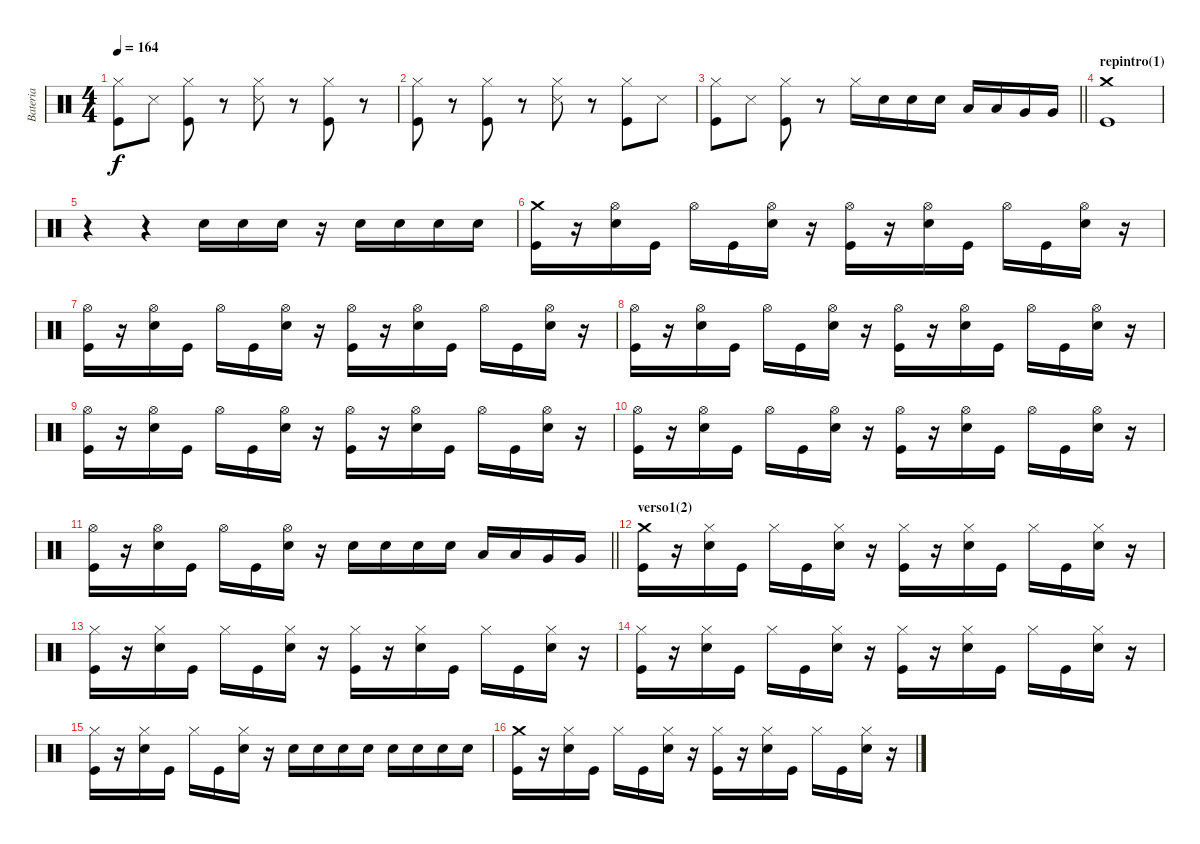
\track ("Bateria" "Bateria") {instrument percussion}
\staff {score}
\articulation defaults
\ts (4 4)
\tempo 164
\clef neutral
\ks c
("Hi-Hat (closed)" "Kick (hit)").8{dy f} "Snare (side stick) 3".8 ("Hi-Hat (closed)" "Kick (hit)").8 r.8 ("Hi-Hat (closed)" "Snare (side stick) 3").8 r.8 ("Hi-Hat (closed)" "Kick (hit)").8 r.8 |
("Hi-Hat (closed)" "Kick (hit)").8 r.8 ("Hi-Hat (closed)" "Kick (hit)").8 r.8 ("Hi-Hat (closed)" "Snare (side stick) 3").8 r.8 ("Hi-Hat (closed)" "Kick (hit)").8 "Snare (side stick) 3".8 |
\barLineRight lightlight
("Hi-Hat (closed)" "Kick (hit)").8 "Snare (side stick) 3".8 ("Hi-Hat (closed)" "Kick (hit)").8 r.8 "Hi-Hat (closed)".16 "Snare (hit) 2".16 "Snare (hit) 2".16 "Snare (hit) 2".16 "Low Tom (hit)".16 "Low Tom (hit)".16 "Very Low Tom (hit)".16 "Very Low Tom (hit)".16 |
\section ("" "repintro(1)")
("Crash medium (hit)" "Kick (hit)").1 |
r.4 r.4 "Snare (hit) 2".16 "Snare (hit) 2".16 "Snare (hit) 2".16 r.16 "Snare (hit) 2".16 "Snare (hit) 2".16 "Snare (hit) 2".16 "Snare (hit) 2".16 |
("Crash medium (hit)" "Kick (hit)").16 r.16 ("Hi-Hat (open)" "Snare (hit) 2").16 "Kick (hit)".16 "Hi-Hat (open)".16 "Kick (hit)".16 ("Hi-Hat (open)" "Snare (hit) 2").16 r.16 ("Hi-Hat (open)" "Kick (hit)").16 r.16 ("Hi-Hat (open)" "Snare (hit) 2").16 "Kick (hit)".16 "Hi-Hat (open)".16 "Kick (hit)".16 ("Hi-Hat (open)" "Snare (hit) 2").16 r.16 |
("Hi-Hat (open)" "Kick (hit)").16 r.16 ("Hi-Hat (open)" "Snare (hit) 2").16 "Kick (hit)".16 "Hi-Hat (open)".16 "Kick (hit)".16 ("Hi-Hat (open)" "Snare (hit) 2").16 r.16 ("Hi-Hat (open)" "Kick (hit)").16 r.16 ("Hi-Hat (open)" "Snare (hit) 2").16 "Kick (hit)".16 "Hi-Hat (open)".16 "Kick (hit)".16 ("Hi-Hat (open)" "Snare (hit) 2").16 r.16 |
("Hi-Hat (open)" "Kick (hit)").16 r.16 ("Hi-Hat (open)" "Snare (hit) 2").16 "Kick (hit)".16 "Hi-Hat (open)".16 "Kick (hit)".16 ("Hi-Hat (open)" "Snare (hit) 2").16 r.16 ("Hi-Hat (open)" "Kick (hit)").16 r.16 ("Hi-Hat (open)" "Snare (hit) 2").16 "Kick (hit)".16 "Hi-Hat (open)".16 "Kick (hit)".16 ("Hi-Hat (open)" "Snare (hit) 2").16 r.16 |
("Hi-Hat (open)" "Kick (hit)").16 r.16 ("Hi-Hat (open)" "Snare (hit) 2").16 "Kick (hit)".16 "Hi-Hat (open)".16 "Kick (hit)".16 ("Hi-Hat (open)" "Snare (hit) 2").16 r.16 ("Hi-Hat (open)" "Kick (hit)").16 r.16 ("Hi-Hat (open)" "Snare (hit) 2").16 "Kick (hit)".16 "Hi-Hat (open)".16 "Kick (hit)".16 ("Hi-Hat (open)" "Snare (hit) 2").16 r.16 |
("Hi-Hat (open)" "Kick (hit)").16 r.16 ("Hi-Hat (open)" "Snare (hit) 2").16 "Kick (hit)".16 "Hi-Hat (open)".16 "Kick (hit)".16 ("Hi-Hat (open)" "Snare (hit) 2").16 r.16 ("Hi-Hat (open)" "Kick (hit)").16 r.16 ("Hi-Hat (open)" "Snare (hit) 2").16 "Kick (hit)".16 "Hi-Hat (open)".16 "Kick (hit)".16 ("Hi-Hat (open)" "Snare (hit) 2").16 r.16 |
\barLineRight lightlight
("Hi-Hat (open)" "Kick (hit)").16 r.16 ("Hi-Hat (open)" "Snare (hit) 2").16 "Kick (hit)".16 "Hi-Hat (open)".16 "Kick (hit)".16 ("Hi-Hat (open)" "Snare (hit) 2").16 r.16 "Snare (hit) 2".16 "Snare (hit) 2".16 "Snare (hit) 2".16 "Snare (hit) 2".16 "Low Tom (hit)".16 "Low Tom (hit)".16 "Very Low Tom (hit)".16 "Very Low Tom (hit)".16 |
\section ("" "verso1(2)")
("Crash medium (hit)" "Kick (hit)").16 r.16 ("Hi-Hat (closed)" "Snare (hit) 2").16 "Kick (hit)".16 "Hi-Hat (closed)".16 "Kick (hit)".16 ("Hi-Hat (closed)" "Snare (hit) 2").16 r.16 ("Hi-Hat (closed)" "Kick (hit)").16 r.16 ("Hi-Hat (closed)" "Snare (hit) 2").16 "Kick (hit)".16 "Hi-Hat (closed)".16 "Kick (hit)".16 ("Hi-Hat (closed)" "Snare (hit) 2").16 r.16 |
("Hi-Hat (closed)" "Kick (hit)").16 r.16 ("Hi-Hat (closed)" "Snare (hit) 2").16 "Kick (hit)".16 "Hi-Hat (closed)".16 "Kick (hit)".16 ("Hi-Hat (closed)" "Snare (hit) 2").16 r.16 ("Hi-Hat (closed)" "Kick (hit)").16 r.16 ("Hi-Hat (closed)" "Snare (hit) 2").16 "Kick (hit)".16 "Hi-Hat (closed)".16 "Kick (hit)".16 ("Hi-Hat (closed)" "Snare (hit) 2").16 r.16 |
("Hi-Hat (closed)" "Kick (hit)").16 r.16 ("Hi-Hat (closed)" "Snare (hit) 2").16 "Kick (hit)".16 "Hi-Hat (closed)".16 "Kick (hit)".16 ("Hi-Hat (closed)" "Snare (hit) 2").16 r.16 ("Hi-Hat (closed)" "Kick (hit)").16 r.16 ("Hi-Hat (closed)" "Snare (hit) 2").16 "Kick (hit)".16 "Hi-Hat (closed)".16 "Kick (hit)".16 ("Hi-Hat (closed)" "Snare (hit) 2").16 r.16 |
("Hi-Hat (closed)" "Kick (hit)").16 r.16 ("Hi-Hat (closed)" "Snare (hit) 2").16 "Kick (hit)".16 "Hi-Hat (closed)".16 "Kick (hit)".16 ("Hi-Hat (closed)" "Snare (hit) 2").16 r.16 "Snare (hit) 2".16 "Snare (hit) 2".16 "Snare (hit) 2".16 "Snare (hit) 2".16 "Snare (hit) 2".16 "Snare (hit) 2".16 "Snare (hit) 2".16 "Snare (hit) 2".16 |
("Crash medium (hit)" "Kick (hit)").16 r.16 ("Hi-Hat (closed)" "Snare (hit) 2").16 "Kick (hit)".16 "Hi-Hat (closed)".16 "Kick (hit)".16 ("Hi-Hat (closed)" "Snare (hit) 2").16 r.16 ("Hi-Hat (closed)" "Kick (hit)").16 r.16 ("Hi-Hat (closed)" "Snare (hit) 2").16 "Kick (hit)".16 "Hi-Hat (closed)".16 "Kick (hit)".16 ("Hi-Hat (closed)" "Snare (hit) 2").16 r.16
